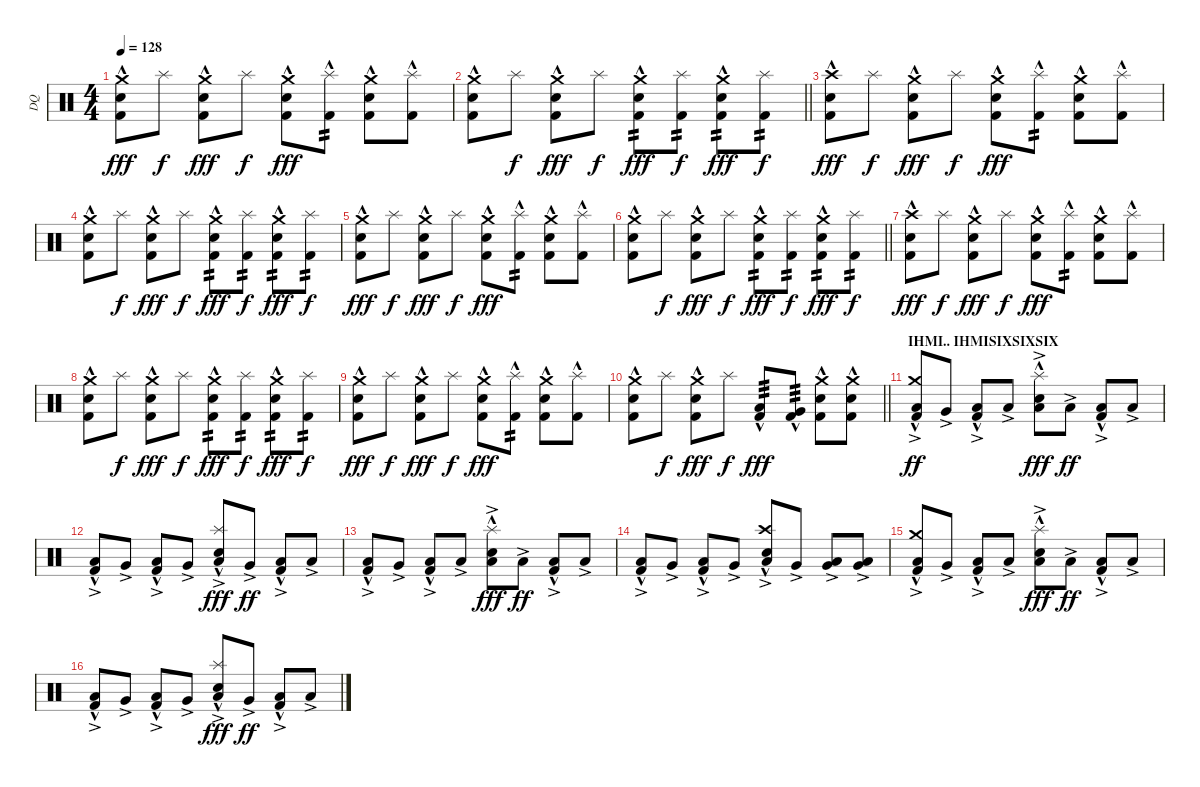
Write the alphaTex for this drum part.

\track ("DQ" "DQ") {instrument percussion}
\staff {score}
\articulation defaults
\ts (4 4)
\tempo 128
\clef neutral
\ks c
("Kick (hit) 2"{hac} "Snare (hit) 2"{hac} "Crash medium (hit)").8{dy fff} "Splash (hit)".8{dy f} ("Kick (hit) 2"{hac} "Snare (hit) 2"{hac} "Crash medium (hit)").8{dy fff} "Splash (hit)".8{dy f} ("Kick (hit) 2"{hac} "Snare (hit) 2"{hac} "Crash medium (hit)").8{dy fff} ("Kick (hit) 2"{hac} "Splash (hit)").8{tp 2} ("Kick (hit) 2"{hac} "Snare (hit) 2"{hac} "Crash medium (hit)").8 ("Kick (hit) 2"{hac} "Splash (hit)").8 |
\barLineRight lightlight
("Kick (hit) 2"{hac} "Snare (hit) 2"{hac} "Crash medium (hit)").8 "Splash (hit)".8{dy f} ("Kick (hit) 2"{hac} "Snare (hit) 2"{hac} "Crash medium (hit)").8{dy fff} "Splash (hit)".8{dy f} ("Kick (hit) 2"{hac} "Snare (hit) 2"{hac} "Crash medium (hit)").8{tp 2 dy fff} ("Kick (hit) 2" "Splash (hit)").8{tp 2 dy f} ("Kick (hit) 2"{hac} "Snare (hit) 2"{hac} "Crash medium (hit)").8{tp 2 dy fff} ("Kick (hit) 2" "Splash (hit)").8{tp 2 dy f} |
\section ("" "")
("Kick (hit) 2"{hac} "Snare (hit) 2"{hac} "Crash high (hit)").8{dy fff} "Splash (hit)".8{dy f} ("Kick (hit) 2"{hac} "Snare (hit) 2"{hac} "Crash medium (hit)").8{dy fff} "Splash (hit)".8{dy f} ("Kick (hit) 2"{hac} "Snare (hit) 2"{hac} "Crash medium (hit)").8{dy fff} ("Kick (hit) 2"{hac} "Splash (hit)").8{tp 2} ("Kick (hit) 2"{hac} "Snare (hit) 2"{hac} "Crash medium (hit)").8 ("Kick (hit) 2"{hac} "Splash (hit)").8 |
("Kick (hit) 2"{hac} "Snare (hit) 2"{hac} "Crash medium (hit)").8 "Splash (hit)".8{dy f} ("Kick (hit) 2"{hac} "Snare (hit) 2"{hac} "Crash medium (hit)").8{dy fff} "Splash (hit)".8{dy f} ("Kick (hit) 2"{hac} "Snare (hit) 2"{hac} "Crash medium (hit)").8{tp 2 dy fff} ("Kick (hit) 2" "Splash (hit)").8{tp 2 dy f} ("Kick (hit) 2"{hac} "Snare (hit) 2"{hac} "Crash medium (hit)").8{tp 2 dy fff} ("Kick (hit) 2" "Splash (hit)").8{tp 2 dy f} |
("Kick (hit) 2"{hac} "Snare (hit) 2"{hac} "Crash medium (hit)").8{dy fff} "Splash (hit)".8{dy f} ("Kick (hit) 2"{hac} "Snare (hit) 2"{hac} "Crash medium (hit)").8{dy fff} "Splash (hit)".8{dy f} ("Kick (hit) 2"{hac} "Snare (hit) 2"{hac} "Crash medium (hit)").8{dy fff} ("Kick (hit) 2"{hac} "Splash (hit)").8{tp 2} ("Kick (hit) 2"{hac} "Snare (hit) 2"{hac} "Crash medium (hit)").8 ("Kick (hit) 2"{hac} "Splash (hit)").8 |
\barLineRight lightlight
("Kick (hit) 2"{hac} "Snare (hit) 2"{hac} "Crash medium (hit)").8 "Splash (hit)".8{dy f} ("Kick (hit) 2"{hac} "Snare (hit) 2"{hac} "Crash medium (hit)").8{dy fff} "Splash (hit)".8{dy f} ("Kick (hit) 2"{hac} "Snare (hit) 2"{hac} "Crash medium (hit)").8{tp 2 dy fff} ("Kick (hit) 2" "Splash (hit)").8{tp 2 dy f} ("Kick (hit) 2"{hac} "Snare (hit) 2"{hac} "Crash medium (hit)").8{tp 2 dy fff} ("Kick (hit) 2" "Splash (hit)").8{tp 2 dy f} |
\section ("" "")
("Kick (hit) 2"{hac} "Snare (hit) 2"{hac} "Crash high (hit)").8{dy fff} "Splash (hit)".8{dy f} ("Kick (hit) 2"{hac} "Snare (hit) 2"{hac} "Crash medium (hit)").8{dy fff} "Splash (hit)".8{dy f} ("Kick (hit) 2"{hac} "Snare (hit) 2"{hac} "Crash medium (hit)").8{dy fff} ("Kick (hit) 2"{hac} "Splash (hit)").8{tp 2} ("Kick (hit) 2"{hac} "Snare (hit) 2"{hac} "Crash medium (hit)").8 ("Kick (hit) 2"{hac} "Splash (hit)").8 |
("Kick (hit) 2"{hac} "Snare (hit) 2"{hac} "Crash medium (hit)").8 "Splash (hit)".8{dy f} ("Kick (hit) 2"{hac} "Snare (hit) 2"{hac} "Crash medium (hit)").8{dy fff} "Splash (hit)".8{dy f} ("Kick (hit) 2"{hac} "Snare (hit) 2"{hac} "Crash medium (hit)").8{tp 2 dy fff} ("Kick (hit) 2" "Splash (hit)").8{tp 2 dy f} ("Kick (hit) 2"{hac} "Snare (hit) 2"{hac} "Crash medium (hit)").8{tp 2 dy fff} ("Kick (hit) 2" "Splash (hit)").8{tp 2 dy f} |
("Kick (hit) 2"{hac} "Snare (hit) 2"{hac} "Crash medium (hit)").8{dy fff} "Splash (hit)".8{dy f} ("Kick (hit) 2"{hac} "Snare (hit) 2"{hac} "Crash medium (hit)").8{dy fff} "Splash (hit)".8{dy f} ("Kick (hit) 2"{hac} "Snare (hit) 2"{hac} "Crash medium (hit)").8{dy fff} ("Kick (hit) 2"{hac} "Splash (hit)").8{tp 2} ("Kick (hit) 2"{hac} "Snare (hit) 2"{hac} "Crash medium (hit)").8 ("Kick (hit) 2"{hac} "Splash (hit)").8 |
\barLineRight lightlight
("Kick (hit) 2"{hac} "Snare (hit) 2"{hac} "Crash medium (hit)").8 "Splash (hit)".8{dy f} ("Kick (hit) 2"{hac} "Snare (hit) 2"{hac} "Crash medium (hit)").8{dy fff} "Splash (hit)".8{dy f} ("Kick (hit) 2"{hac} "Low Tom (hit)"{hac}).8{tp 3 dy fff} ("Kick (hit) 2" "Very Low Tom (hit)"{hac}).8{tp 3} ("Kick (hit) 2"{hac} "Snare (hit) 2"{hac} "Crash medium (hit)").8 ("Kick (hit) 2" "Snare (hit) 2"{hac} "Crash medium (hit)").8 |
\section ("" "IHMI.. IHMISIXSIXSIX")
("Kick (hit) 2"{hac} "Low Tom (hit)"{ac} "Crash medium (hit)").8{dy ff} "Very Low Tom (hit)"{ac}.8 ("Kick (hit) 2"{hac} "Low Floor Tom (hit)"{ac}).8 "Low Floor Tom (hit)"{ac}.8 ("Snare (hit) 2"{hac} "Low Floor Tom (hit)"{ac} "Splash (hit)"{hac}).8{dy fff} "Low Tom (hit)"{ac}.8{dy ff} ("Kick (hit) 2"{hac} "Low Floor Tom (hit)"{ac}).8 "Low Floor Tom (hit)"{ac}.8 |
("Kick (hit) 2"{hac} "Low Floor Tom (hit)"{ac}).8 "Very Low Tom (hit)"{ac}.8 ("Kick (hit) 2"{hac} "Low Floor Tom (hit)"{ac}).8 "Very Low Tom (hit)"{ac}.8 ("Snare (hit) 2"{hac} "Low Tom (hit)"{ac} "Splash (hit)"{hac}).8{dy fff} "Very Low Tom (hit)"{ac}.8{dy ff} ("Kick (hit) 2"{hac} "Low Floor Tom (hit)"{ac}).8 "Low Floor Tom (hit)"{ac}.8 |
("Kick (hit) 2"{hac} "Low Tom (hit)"{ac}).8 "Very Low Tom (hit)"{ac}.8 ("Kick (hit) 2"{hac} "Low Floor Tom (hit)"{ac}).8 "Low Floor Tom (hit)"{ac}.8 ("Snare (hit) 2"{hac} "Low Floor Tom (hit)"{ac} "Splash (hit)"{hac}).8{dy fff} "Low Tom (hit)"{ac}.8{dy ff} ("Kick (hit) 2"{hac} "Low Floor Tom (hit)"{ac}).8 "Low Floor Tom (hit)"{ac}.8 |
("Kick (hit) 2"{hac} "Low Floor Tom (hit)"{ac}).8 "Very Low Tom (hit)"{ac}.8 ("Kick (hit) 2"{hac} "Low Floor Tom (hit)"{ac}).8 "Very Low Tom (hit)"{ac}.8 ("Snare (hit) 2"{hac} "Low Tom (hit)"{ac} "Crash high (hit)").8 "Very Low Tom (hit)"{ac}.8 ("Very Low Tom (hit)"{ac} "Low Floor Tom (hit)"{ac}).8 ("Very Low Tom (hit)"{ac} "Low Floor Tom (hit)"{ac}).8 |
("Kick (hit) 2"{hac} "Low Tom (hit)"{ac} "Crash medium (hit)").8 "Very Low Tom (hit)"{ac}.8 ("Kick (hit) 2"{hac} "Low Floor Tom (hit)"{ac}).8 "Low Floor Tom (hit)"{ac}.8 ("Snare (hit) 2"{hac} "Low Floor Tom (hit)"{ac} "Splash (hit)"{hac}).8{dy fff} "Low Tom (hit)"{ac}.8{dy ff} ("Kick (hit) 2"{hac} "Low Floor Tom (hit)"{ac}).8 "Low Floor Tom (hit)"{ac}.8 |
("Kick (hit) 2"{hac} "Low Floor Tom (hit)"{ac}).8 "Very Low Tom (hit)"{ac}.8 ("Kick (hit) 2"{hac} "Low Floor Tom (hit)"{ac}).8 "Very Low Tom (hit)"{ac}.8 ("Snare (hit) 2"{hac} "Low Tom (hit)"{ac} "Splash (hit)"{hac}).8{dy fff} "Very Low Tom (hit)"{ac}.8{dy ff} ("Kick (hit) 2"{hac} "Low Floor Tom (hit)"{ac}).8 "Low Floor Tom (hit)"{ac}.8
